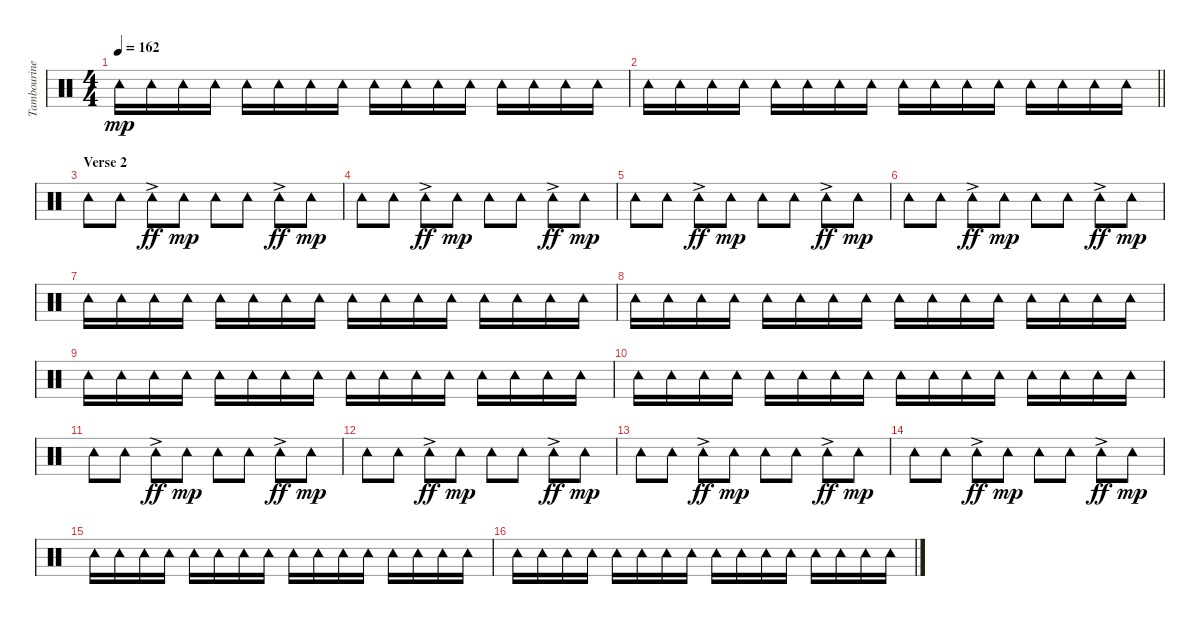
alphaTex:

\track ("Tambourine" "Tambourine") {instrument percussion}
\staff {score}
\articulation defaults
\ts (4 4)
\tempo 162
\clef neutral
\ks c "Tambourine (hit)".16{dy mp} "Tambourine (hit)".16 "Tambourine (hit)".16 "Tambourine (hit)".16 "Tambourine (hit)".16 "Tambourine (hit)".16 "Tambourine (hit)".16 "Tambourine (hit)".16 "Tambourine (hit)".16 "Tambourine (hit)".16 "Tambourine (hit)".16 "Tambourine (hit)".16 "Tambourine (hit)".16 "Tambourine (hit)".16 "Tambourine (hit)".16 "Tambourine (hit)".16
|
\barLineRight lightlight "Tambourine (hit)".16 "Tambourine (hit)".16 "Tambourine (hit)".16 "Tambourine (hit)".16 "Tambourine (hit)".16 "Tambourine (hit)".16 "Tambourine (hit)".16 "Tambourine (hit)".16 "Tambourine (hit)".16 "Tambourine (hit)".16 "Tambourine (hit)".16 "Tambourine (hit)".16 "Tambourine (hit)".16 "Tambourine (hit)".16 "Tambourine (hit)".16 "Tambourine (hit)".16
|
\section ("" "Verse 2")
"Tambourine (hit)".8 "Tambourine (hit)".8 "Tambourine (hit)"{ac}.8{dy ff} "Tambourine (hit)".8{dy mp} "Tambourine (hit)".8 "Tambourine (hit)".8 "Tambourine (hit)"{ac}.8{dy ff} "Tambourine (hit)".8{dy mp} |
"Tambourine (hit)".8 "Tambourine (hit)".8 "Tambourine (hit)"{ac}.8{dy ff} "Tambourine (hit)".8{dy mp} "Tambourine (hit)".8 "Tambourine (hit)".8 "Tambourine (hit)"{ac}.8{dy ff} "Tambourine (hit)".8{dy mp} |
"Tambourine (hit)".8 "Tambourine (hit)".8 "Tambourine (hit)"{ac}.8{dy ff} "Tambourine (hit)".8{dy mp} "Tambourine (hit)".8 "Tambourine (hit)".8 "Tambourine (hit)"{ac}.8{dy ff} "Tambourine (hit)".8{dy mp} |
"Tambourine (hit)".8 "Tambourine (hit)".8 "Tambourine (hit)"{ac}.8{dy ff} "Tambourine (hit)".8{dy mp} "Tambourine (hit)".8 "Tambourine (hit)".8 "Tambourine (hit)"{ac}.8{dy ff} "Tambourine (hit)".8{dy mp} |
"Tambourine (hit)".16 "Tambourine (hit)".16 "Tambourine (hit)".16 "Tambourine (hit)".16 "Tambourine (hit)".16 "Tambourine (hit)".16 "Tambourine (hit)".16 "Tambourine (hit)".16 "Tambourine (hit)".16 "Tambourine (hit)".16 "Tambourine (hit)".16 "Tambourine (hit)".16 "Tambourine (hit)".16 "Tambourine (hit)".16 "Tambourine (hit)".16 "Tambourine (hit)".16 |
"Tambourine (hit)".16 "Tambourine (hit)".16 "Tambourine (hit)".16 "Tambourine (hit)".16 "Tambourine (hit)".16 "Tambourine (hit)".16 "Tambourine (hit)".16 "Tambourine (hit)".16 "Tambourine (hit)".16 "Tambourine (hit)".16 "Tambourine (hit)".16 "Tambourine (hit)".16 "Tambourine (hit)".16 "Tambourine (hit)".16 "Tambourine (hit)".16 "Tambourine (hit)".16 |
"Tambourine (hit)".16 "Tambourine (hit)".16 "Tambourine (hit)".16 "Tambourine (hit)".16 "Tambourine (hit)".16 "Tambourine (hit)".16 "Tambourine (hit)".16 "Tambourine (hit)".16 "Tambourine (hit)".16 "Tambourine (hit)".16 "Tambourine (hit)".16 "Tambourine (hit)".16 "Tambourine (hit)".16 "Tambourine (hit)".16 "Tambourine (hit)".16 "Tambourine (hit)".16 |
"Tambourine (hit)".16 "Tambourine (hit)".16 "Tambourine (hit)".16 "Tambourine (hit)".16 "Tambourine (hit)".16 "Tambourine (hit)".16 "Tambourine (hit)".16 "Tambourine (hit)".16 "Tambourine (hit)".16 "Tambourine (hit)".16 "Tambourine (hit)".16 "Tambourine (hit)".16 "Tambourine (hit)".16 "Tambourine (hit)".16 "Tambourine (hit)".16 "Tambourine (hit)".16 |
"Tambourine (hit)".8 "Tambourine (hit)".8 "Tambourine (hit)"{ac}.8{dy ff} "Tambourine (hit)".8{dy mp} "Tambourine (hit)".8 "Tambourine (hit)".8 "Tambourine (hit)"{ac}.8{dy ff} "Tambourine (hit)".8{dy mp} |
"Tambourine (hit)".8 "Tambourine (hit)".8 "Tambourine (hit)"{ac}.8{dy ff} "Tambourine (hit)".8{dy mp} "Tambourine (hit)".8 "Tambourine (hit)".8 "Tambourine (hit)"{ac}.8{dy ff} "Tambourine (hit)".8{dy mp} |
"Tambourine (hit)".8 "Tambourine (hit)".8 "Tambourine (hit)"{ac}.8{dy ff} "Tambourine (hit)".8{dy mp} "Tambourine (hit)".8 "Tambourine (hit)".8 "Tambourine (hit)"{ac}.8{dy ff} "Tambourine (hit)".8{dy mp} |
"Tambourine (hit)".8 "Tambourine (hit)".8 "Tambourine (hit)"{ac}.8{dy ff} "Tambourine (hit)".8{dy mp} "Tambourine (hit)".8 "Tambourine (hit)".8 "Tambourine (hit)"{ac}.8{dy ff} "Tambourine (hit)".8{dy mp} |
"Tambourine (hit)".16 "Tambourine (hit)".16 "Tambourine (hit)".16 "Tambourine (hit)".16 "Tambourine (hit)".16 "Tambourine (hit)".16 "Tambourine (hit)".16 "Tambourine (hit)".16 "Tambourine (hit)".16 "Tambourine (hit)".16 "Tambourine (hit)".16 "Tambourine (hit)".16 "Tambourine (hit)".16 "Tambourine (hit)".16 "Tambourine (hit)".16 "Tambourine (hit)".16 |
"Tambourine (hit)".16 "Tambourine (hit)".16 "Tambourine (hit)".16 "Tambourine (hit)".16 "Tambourine (hit)".16 "Tambourine (hit)".16 "Tambourine (hit)".16 "Tambourine (hit)".16 "Tambourine (hit)".16 "Tambourine (hit)".16 "Tambourine (hit)".16 "Tambourine (hit)".16 "Tambourine (hit)".16 "Tambourine (hit)".16 "Tambourine (hit)".16 "Tambourine (hit)".16
